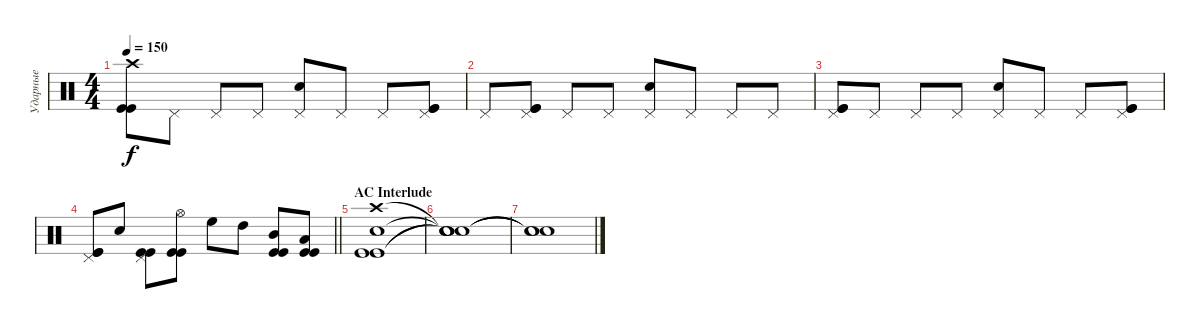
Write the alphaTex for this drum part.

\track ("Ударные" "Ударные") {instrument percussion}
\staff {score}
\articulation defaults
\ts (4 4)
\tempo 150
\clef neutral
\ks c
("Crash high (hit)" "Kick (hit)" "Kick (hit)").8{dy f} "Pedal Hi-Hat (hit)".8 "Pedal Hi-Hat (hit)".8 "Pedal Hi-Hat (hit)".8 ("Pedal Hi-Hat (hit)" "Electric Snare (hit)").8 "Pedal Hi-Hat (hit)".8 "Pedal Hi-Hat (hit)".8 ("Pedal Hi-Hat (hit)" "Kick (hit)" "Kick (hit)").8 |
"Pedal Hi-Hat (hit)".8 ("Pedal Hi-Hat (hit)" "Kick (hit)" "Kick (hit)").8 "Pedal Hi-Hat (hit)".8 "Pedal Hi-Hat (hit)".8 ("Pedal Hi-Hat (hit)" "Electric Snare (hit)").8 "Pedal Hi-Hat (hit)".8 "Pedal Hi-Hat (hit)".8 "Pedal Hi-Hat (hit)".8 |
("Pedal Hi-Hat (hit)" "Kick (hit)" "Kick (hit)").8 "Pedal Hi-Hat (hit)".8 "Pedal Hi-Hat (hit)".8 "Pedal Hi-Hat (hit)".8 ("Pedal Hi-Hat (hit)" "Electric Snare (hit)").8 "Pedal Hi-Hat (hit)".8 "Pedal Hi-Hat (hit)".8 ("Pedal Hi-Hat (hit)" "Kick (hit)" "Kick (hit)").8 |
\barLineRight lightlight
("Pedal Hi-Hat (hit)" "Kick (hit)" "Kick (hit)").8 "Electric Snare (hit)".8 ("Pedal Hi-Hat (hit)" "Kick (hit)" "Kick (hit)").8 ("Hi-Hat (open)" "Kick (hit)" "Kick (hit)").8 "High Floor Tom (hit)".8 "High Tom (hit)".8 ("Mid Tom (hit)" "Kick (hit)" "Kick (hit)").8 ("Low Tom (hit)" "Kick (hit)" "Kick (hit)").8 |
\section ("" "AC Interlude")
("Crash high (hit)" "Electric Snare (hit)" "Kick (hit)" "Kick (hit)").1 |
("Snare (hit)"{t} "Snare (hit)"{t} "Snare (hit)"{t} "Snare (hit)"{t}).1 |
("Snare (hit)"{t} "Snare (hit)"{t} "Snare (hit)"{t}).1
